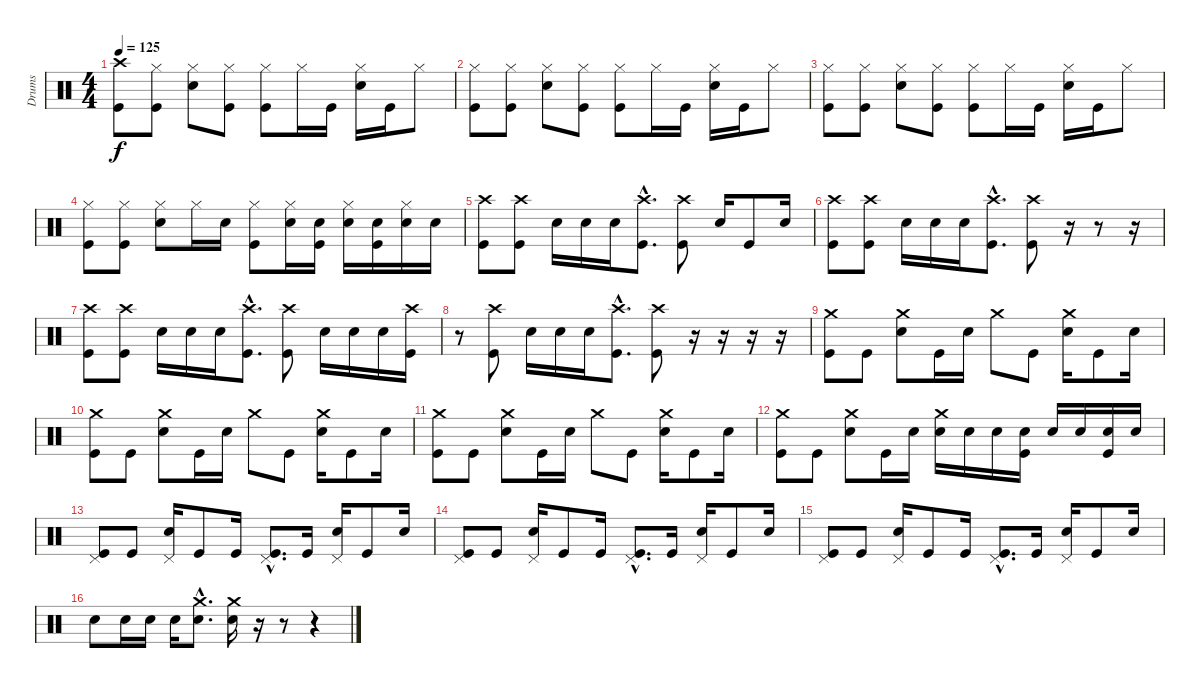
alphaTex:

\track ("Drums" "Drums") {instrument percussion}
\staff {score}
\articulation defaults
\ts (4 4)
\tempo 125
\clef neutral
\ks c
("Kick (hit)" "Crash high (hit)").8{dy f} ("Kick (hit)" "Hi-Hat (closed)").8 ("Snare (hit) 2" "Hi-Hat (closed)").8 ("Kick (hit)" "Hi-Hat (closed)").8 ("Kick (hit)" "Hi-Hat (closed)").8 "Hi-Hat (closed)".16 "Kick (hit)".16 ("Snare (hit) 2" "Hi-Hat (closed)").16 "Kick (hit)".16 "Hi-Hat (closed)".8 |
("Kick (hit)" "Hi-Hat (closed)").8 ("Kick (hit)" "Hi-Hat (closed)").8 ("Snare (hit) 2" "Hi-Hat (closed)").8 ("Kick (hit)" "Hi-Hat (closed)").8 ("Kick (hit)" "Hi-Hat (closed)").8 "Hi-Hat (closed)".16 "Kick (hit)".16 ("Snare (hit) 2" "Hi-Hat (closed)").16 "Kick (hit)".16 "Hi-Hat (closed)".8 |
("Kick (hit)" "Hi-Hat (closed)").8 ("Kick (hit)" "Hi-Hat (closed)").8 ("Snare (hit) 2" "Hi-Hat (closed)").8 ("Kick (hit)" "Hi-Hat (closed)").8 ("Kick (hit)" "Hi-Hat (closed)").8 "Hi-Hat (closed)".16 "Kick (hit)".16 ("Snare (hit) 2" "Hi-Hat (closed)").16 "Kick (hit)".16 "Hi-Hat (closed)".8 |
("Kick (hit)" "Hi-Hat (closed)").8 ("Kick (hit)" "Hi-Hat (closed)").8 ("Snare (hit) 2" "Hi-Hat (closed)").8 "Hi-Hat (closed)".16 "Snare (hit) 2".16 ("Kick (hit)" "Hi-Hat (closed)").8 ("Snare (hit) 2" "Hi-Hat (closed)").16 ("Kick (hit)" "Snare (hit) 2").16 ("Snare (hit) 2" "Hi-Hat (closed)").16 ("Kick (hit)" "Snare (hit) 2").16 ("Snare (hit) 2" "Hi-Hat (closed)").16 "Snare (hit) 2".16 |
("Kick (hit)" "Crash high (hit)").8 ("Kick (hit)" "Crash high (hit)").8 "Snare (hit) 2".16 "Snare (hit) 2".16 "Snare (hit) 2".16 ("Kick (hit)"{hac} "Crash high (hit)"{hac}).8{d} ("Kick (hit)" "Crash high (hit)").8 "Snare (hit) 2".16 "Kick (hit)".8 "Snare (hit) 2".16 |
("Kick (hit)" "Crash high (hit)").8 ("Kick (hit)" "Crash high (hit)").8 "Snare (hit) 2".16 "Snare (hit) 2".16 "Snare (hit) 2".16 ("Kick (hit)"{hac} "Crash high (hit)"{hac}).8{d} ("Kick (hit)" "Crash high (hit)").8 r.16 r.8 r.16 |
("Kick (hit)" "Crash high (hit)").8 ("Kick (hit)" "Crash high (hit)").8 "Snare (hit) 2".16 "Snare (hit) 2".16 "Snare (hit) 2".16 ("Kick (hit)"{hac} "Crash high (hit)"{hac}).8{d} ("Kick (hit)" "Crash high (hit)").8 "Snare (hit) 2".16 "Snare (hit) 2".16 "Snare (hit) 2".16 ("Kick (hit)" "Crash high (hit)").16 |
r.8 ("Kick (hit)" "Crash high (hit)").8 "Snare (hit) 2".16 "Snare (hit) 2".16 "Snare (hit) 2".16 ("Kick (hit)"{hac} "Crash high (hit)"{hac}).8{d} ("Kick (hit)" "Crash high (hit)").8 r.16 r.16 r.16 r.16 |
("Kick (hit)" "Crash medium (hit)").8 "Kick (hit)".8 ("Snare (hit) 2" "Crash medium (hit)").8 "Kick (hit)".16 "Snare (hit) 2".16 "Crash medium (hit)".8 "Kick (hit)".8 ("Snare (hit) 2" "Crash medium (hit)").16 "Kick (hit)".8 "Snare (hit) 2".16 |
("Kick (hit)" "Crash medium (hit)").8 "Kick (hit)".8 ("Snare (hit) 2" "Crash medium (hit)").8 "Kick (hit)".16 "Snare (hit) 2".16 "Crash medium (hit)".8 "Kick (hit)".8 ("Snare (hit) 2" "Crash medium (hit)").16 "Kick (hit)".8 "Snare (hit) 2".16 |
("Kick (hit)" "Crash medium (hit)").8 "Kick (hit)".8 ("Snare (hit) 2" "Crash medium (hit)").8 "Kick (hit)".16 "Snare (hit) 2".16 "Crash medium (hit)".8 "Kick (hit)".8 ("Snare (hit) 2" "Crash medium (hit)").16 "Kick (hit)".8 "Snare (hit) 2".16 |
("Kick (hit)" "Crash medium (hit)").8 "Kick (hit)".8 ("Snare (hit) 2" "Crash medium (hit)").8 "Kick (hit)".16 "Snare (hit) 2".16 ("Snare (hit) 2" "Crash medium (hit)").16 "Snare (hit) 2".16 "Snare (hit) 2".16 ("Kick (hit)" "Snare (hit) 2").16 "Snare (hit) 2".16 "Snare (hit) 2".16 ("Kick (hit)" "Snare (hit) 2").16 "Snare (hit) 2".16 |
("Kick (hit)" "Pedal Hi-Hat (hit)").8 "Kick (hit)".8 ("Snare (hit) 2" "Pedal Hi-Hat (hit)").16 "Kick (hit)".8 "Kick (hit)".16 ("Kick (hit)"{hac} "Pedal Hi-Hat (hit)"{hac}).8{d} "Kick (hit)".16 ("Snare (hit) 2" "Pedal Hi-Hat (hit)").16 "Kick (hit)".8 "Snare (hit) 2".16 |
("Kick (hit)" "Pedal Hi-Hat (hit)").8 "Kick (hit)".8 ("Snare (hit) 2" "Pedal Hi-Hat (hit)").16 "Kick (hit)".8 "Kick (hit)".16 ("Kick (hit)"{hac} "Pedal Hi-Hat (hit)"{hac}).8{d} "Kick (hit)".16 ("Snare (hit) 2" "Pedal Hi-Hat (hit)").16 "Kick (hit)".8 "Snare (hit) 2".16 |
("Kick (hit)" "Pedal Hi-Hat (hit)").8 "Kick (hit)".8 ("Snare (hit) 2" "Pedal Hi-Hat (hit)").16 "Kick (hit)".8 "Kick (hit)".16 ("Kick (hit)"{hac} "Pedal Hi-Hat (hit)"{hac}).8{d} "Kick (hit)".16 ("Snare (hit) 2" "Pedal Hi-Hat (hit)").16 "Kick (hit)".8 "Snare (hit) 2".16 |
"Snare (hit) 2".8 "Snare (hit) 2".16 "Snare (hit) 2".16 "Snare (hit) 2".16 ("Snare (hit) 2"{hac} "Crash medium (hit)"{hac}).8{d} ("Snare (hit) 2" "Crash medium (hit)").16 r.16 r.8 r.4
